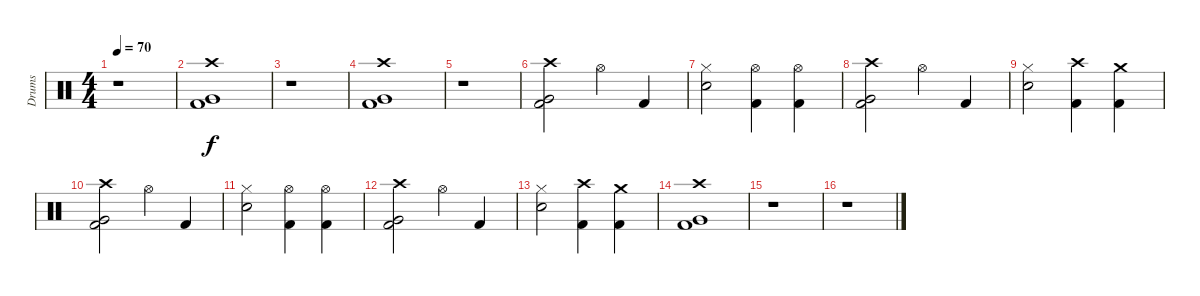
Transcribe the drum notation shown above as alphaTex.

\track ("Drums" "Drums") {instrument percussion}
\staff {score}
\articulation defaults
\ts (4 4)
\tempo 70
\clef neutral
\ks c
r.1{dy f} |
("Crash high (hit)" "Very Low Tom (hit)" "Kick (hit) 2").1 |
r.1 |
("Crash high (hit)" "Very Low Tom (hit)" "Kick (hit) 2").1 |
r.1 |
("Crash high (hit)" "Very Low Tom (hit)" "Kick (hit) 2").2 "Hi-Hat (open)".4 "Kick (hit) 2".4 |
("Hi-Hat (closed)" "Electric Snare (hit)").2 ("Hi-Hat (open)" "Kick (hit) 2").4 ("Hi-Hat (open)" "Kick (hit) 2").4 |
("Crash high (hit)" "Very Low Tom (hit)" "Kick (hit) 2").2 "Hi-Hat (open)".4 "Kick (hit) 2".4 |
("Hi-Hat (closed)" "Electric Snare (hit)").2 ("Crash high (hit)" "Kick (hit) 2").4 ("Crash medium (hit)" "Kick (hit) 2").4 |
("Crash high (hit)" "Very Low Tom (hit)" "Kick (hit) 2").2 "Hi-Hat (open)".4 "Kick (hit) 2".4 |
("Hi-Hat (closed)" "Electric Snare (hit)").2 ("Hi-Hat (open)" "Kick (hit) 2").4 ("Hi-Hat (open)" "Kick (hit) 2").4 |
("Crash high (hit)" "Very Low Tom (hit)" "Kick (hit) 2").2 "Hi-Hat (open)".4 "Kick (hit) 2".4 |
("Hi-Hat (closed)" "Electric Snare (hit)").2 ("Crash high (hit)" "Kick (hit) 2").4 ("Crash medium (hit)" "Kick (hit) 2").4 |
("Crash high (hit)" "Very Low Tom (hit)" "Kick (hit) 2").1 |
r.1 |
r.1
